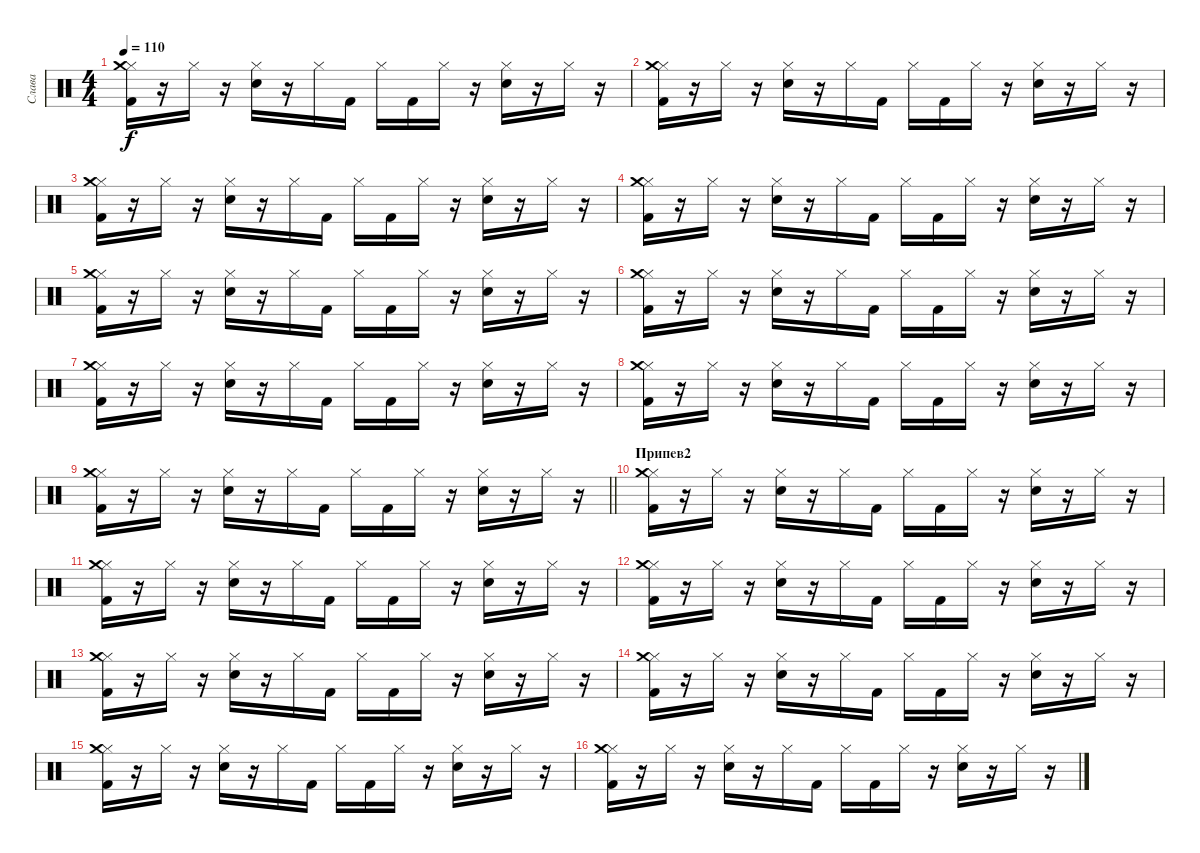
\track ("Слава" "Слава") {instrument percussion}
\staff {score}
\articulation defaults
\ts (4 4)
\tempo 110
\clef neutral
\ks c
("Hi-Hat (closed)" "Crash medium (hit)" "Kick (hit) 2").16{dy f} r.16 "Hi-Hat (closed)".16 r.16 ("Hi-Hat (closed)" "Electric Snare (hit)").16 r.16 "Hi-Hat (closed)".16 "Kick (hit) 2".16 "Hi-Hat (closed)".16 "Kick (hit) 2".16 "Hi-Hat (closed)".16 r.16 ("Hi-Hat (closed)" "Electric Snare (hit)").16 r.16 "Hi-Hat (closed)".16 r.16 |
("Hi-Hat (closed)" "Crash medium (hit)" "Kick (hit) 2").16 r.16 "Hi-Hat (closed)".16 r.16 ("Hi-Hat (closed)" "Electric Snare (hit)").16 r.16 "Hi-Hat (closed)".16 "Kick (hit) 2".16 "Hi-Hat (closed)".16 "Kick (hit) 2".16 "Hi-Hat (closed)".16 r.16 ("Hi-Hat (closed)" "Electric Snare (hit)").16 r.16 "Hi-Hat (closed)".16 r.16 |
("Hi-Hat (closed)" "Crash medium (hit)" "Kick (hit) 2").16 r.16 "Hi-Hat (closed)".16 r.16 ("Hi-Hat (closed)" "Electric Snare (hit)").16 r.16 "Hi-Hat (closed)".16 "Kick (hit) 2".16 "Hi-Hat (closed)".16 "Kick (hit) 2".16 "Hi-Hat (closed)".16 r.16 ("Hi-Hat (closed)" "Electric Snare (hit)").16 r.16 "Hi-Hat (closed)".16 r.16 |
("Hi-Hat (closed)" "Crash medium (hit)" "Kick (hit) 2").16 r.16 "Hi-Hat (closed)".16 r.16 ("Hi-Hat (closed)" "Electric Snare (hit)").16 r.16 "Hi-Hat (closed)".16 "Kick (hit) 2".16 "Hi-Hat (closed)".16 "Kick (hit) 2".16 "Hi-Hat (closed)".16 r.16 ("Hi-Hat (closed)" "Electric Snare (hit)").16 r.16 "Hi-Hat (closed)".16 r.16 |
("Hi-Hat (closed)" "Crash medium (hit)" "Kick (hit) 2").16 r.16 "Hi-Hat (closed)".16 r.16 ("Hi-Hat (closed)" "Electric Snare (hit)").16 r.16 "Hi-Hat (closed)".16 "Kick (hit) 2".16 "Hi-Hat (closed)".16 "Kick (hit) 2".16 "Hi-Hat (closed)".16 r.16 ("Hi-Hat (closed)" "Electric Snare (hit)").16 r.16 "Hi-Hat (closed)".16 r.16 |
("Hi-Hat (closed)" "Crash medium (hit)" "Kick (hit) 2").16 r.16 "Hi-Hat (closed)".16 r.16 ("Hi-Hat (closed)" "Electric Snare (hit)").16 r.16 "Hi-Hat (closed)".16 "Kick (hit) 2".16 "Hi-Hat (closed)".16 "Kick (hit) 2".16 "Hi-Hat (closed)".16 r.16 ("Hi-Hat (closed)" "Electric Snare (hit)").16 r.16 "Hi-Hat (closed)".16 r.16 |
("Hi-Hat (closed)" "Crash medium (hit)" "Kick (hit) 2").16 r.16 "Hi-Hat (closed)".16 r.16 ("Hi-Hat (closed)" "Electric Snare (hit)").16 r.16 "Hi-Hat (closed)".16 "Kick (hit) 2".16 "Hi-Hat (closed)".16 "Kick (hit) 2".16 "Hi-Hat (closed)".16 r.16 ("Hi-Hat (closed)" "Electric Snare (hit)").16 r.16 "Hi-Hat (closed)".16 r.16 |
("Hi-Hat (closed)" "Crash medium (hit)" "Kick (hit) 2").16 r.16 "Hi-Hat (closed)".16 r.16 ("Hi-Hat (closed)" "Electric Snare (hit)").16 r.16 "Hi-Hat (closed)".16 "Kick (hit) 2".16 "Hi-Hat (closed)".16 "Kick (hit) 2".16 "Hi-Hat (closed)".16 r.16 ("Hi-Hat (closed)" "Electric Snare (hit)").16 r.16 "Hi-Hat (closed)".16 r.16 |
\barLineRight lightlight
("Hi-Hat (closed)" "Crash medium (hit)" "Kick (hit) 2").16 r.16 "Hi-Hat (closed)".16 r.16 ("Hi-Hat (closed)" "Electric Snare (hit)").16 r.16 "Hi-Hat (closed)".16 "Kick (hit) 2".16 "Hi-Hat (closed)".16 "Kick (hit) 2".16 "Hi-Hat (closed)".16 r.16 ("Hi-Hat (closed)" "Electric Snare (hit)").16 r.16 "Hi-Hat (closed)".16 r.16 |
\section ("" "Припев2")
("Hi-Hat (closed)" "Crash medium (hit)" "Kick (hit) 2").16 r.16 "Hi-Hat (closed)".16 r.16 ("Hi-Hat (closed)" "Electric Snare (hit)").16 r.16 "Hi-Hat (closed)".16 "Kick (hit) 2".16 "Hi-Hat (closed)".16 "Kick (hit) 2".16 "Hi-Hat (closed)".16 r.16 ("Hi-Hat (closed)" "Electric Snare (hit)").16 r.16 "Hi-Hat (closed)".16 r.16 |
("Hi-Hat (closed)" "Crash medium (hit)" "Kick (hit) 2").16 r.16 "Hi-Hat (closed)".16 r.16 ("Hi-Hat (closed)" "Electric Snare (hit)").16 r.16 "Hi-Hat (closed)".16 "Kick (hit) 2".16 "Hi-Hat (closed)".16 "Kick (hit) 2".16 "Hi-Hat (closed)".16 r.16 ("Hi-Hat (closed)" "Electric Snare (hit)").16 r.16 "Hi-Hat (closed)".16 r.16 |
("Hi-Hat (closed)" "Crash medium (hit)" "Kick (hit) 2").16 r.16 "Hi-Hat (closed)".16 r.16 ("Hi-Hat (closed)" "Electric Snare (hit)").16 r.16 "Hi-Hat (closed)".16 "Kick (hit) 2".16 "Hi-Hat (closed)".16 "Kick (hit) 2".16 "Hi-Hat (closed)".16 r.16 ("Hi-Hat (closed)" "Electric Snare (hit)").16 r.16 "Hi-Hat (closed)".16 r.16 |
("Hi-Hat (closed)" "Crash medium (hit)" "Kick (hit) 2").16 r.16 "Hi-Hat (closed)".16 r.16 ("Hi-Hat (closed)" "Electric Snare (hit)").16 r.16 "Hi-Hat (closed)".16 "Kick (hit) 2".16 "Hi-Hat (closed)".16 "Kick (hit) 2".16 "Hi-Hat (closed)".16 r.16 ("Hi-Hat (closed)" "Electric Snare (hit)").16 r.16 "Hi-Hat (closed)".16 r.16 |
("Hi-Hat (closed)" "Crash medium (hit)" "Kick (hit) 2").16 r.16 "Hi-Hat (closed)".16 r.16 ("Hi-Hat (closed)" "Electric Snare (hit)").16 r.16 "Hi-Hat (closed)".16 "Kick (hit) 2".16 "Hi-Hat (closed)".16 "Kick (hit) 2".16 "Hi-Hat (closed)".16 r.16 ("Hi-Hat (closed)" "Electric Snare (hit)").16 r.16 "Hi-Hat (closed)".16 r.16 |
("Hi-Hat (closed)" "Crash medium (hit)" "Kick (hit) 2").16 r.16 "Hi-Hat (closed)".16 r.16 ("Hi-Hat (closed)" "Electric Snare (hit)").16 r.16 "Hi-Hat (closed)".16 "Kick (hit) 2".16 "Hi-Hat (closed)".16 "Kick (hit) 2".16 "Hi-Hat (closed)".16 r.16 ("Hi-Hat (closed)" "Electric Snare (hit)").16 r.16 "Hi-Hat (closed)".16 r.16 |
("Hi-Hat (closed)" "Crash medium (hit)" "Kick (hit) 2").16 r.16 "Hi-Hat (closed)".16 r.16 ("Hi-Hat (closed)" "Electric Snare (hit)").16 r.16 "Hi-Hat (closed)".16 "Kick (hit) 2".16 "Hi-Hat (closed)".16 "Kick (hit) 2".16 "Hi-Hat (closed)".16 r.16 ("Hi-Hat (closed)" "Electric Snare (hit)").16 r.16 "Hi-Hat (closed)".16 r.16
